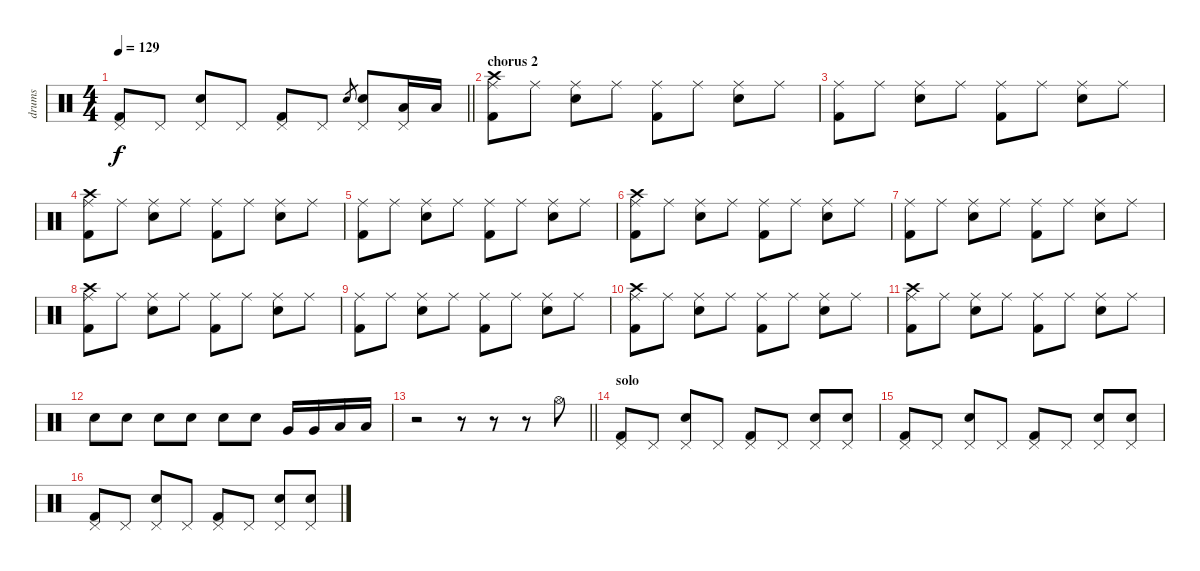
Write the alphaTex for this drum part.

\track ("drums" "drums") {instrument percussion}
\staff {score}
\articulation defaults
\ts (4 4)
\tempo 129
\clef neutral
\barLineRight lightlight
\ks c
("Kick (hit) 2" "Pedal Hi-Hat (hit)").8{dy f} "Pedal Hi-Hat (hit)".8 ("Electric Snare (hit)" "Pedal Hi-Hat (hit)").8 "Pedal Hi-Hat (hit)".8 ("Kick (hit) 2" "Pedal Hi-Hat (hit)").8 "Pedal Hi-Hat (hit)".8 "Electric Snare (hit)".8{gr} ("Electric Snare (hit)" "Pedal Hi-Hat (hit)").8 ("Low Tom (hit)" "Pedal Hi-Hat (hit)").16 "Low Tom (hit)".16 |
\section ("" "chorus 2")
("Kick (hit) 2" "Ride (middle)" "Crash high (hit)").8 "Ride (middle)".8 ("Electric Snare (hit)" "Ride (middle)").8 "Ride (middle)".8 ("Kick (hit) 2" "Ride (middle)").8 "Ride (middle)".8 ("Electric Snare (hit)" "Ride (middle)").8 "Ride (middle)".8 |
("Kick (hit) 2" "Ride (middle)").8 "Ride (middle)".8 ("Electric Snare (hit)" "Ride (middle)").8 "Ride (middle)".8 ("Kick (hit) 2" "Ride (middle)").8 "Ride (middle)".8 ("Electric Snare (hit)" "Ride (middle)").8 "Ride (middle)".8 |
("Kick (hit) 2" "Ride (middle)" "Crash high (hit)").8 "Ride (middle)".8 ("Electric Snare (hit)" "Ride (middle)").8 "Ride (middle)".8 ("Kick (hit) 2" "Ride (middle)").8 "Ride (middle)".8 ("Electric Snare (hit)" "Ride (middle)").8 "Ride (middle)".8 |
("Kick (hit) 2" "Ride (middle)").8 "Ride (middle)".8 ("Electric Snare (hit)" "Ride (middle)").8 "Ride (middle)".8 ("Kick (hit) 2" "Ride (middle)").8 "Ride (middle)".8 ("Electric Snare (hit)" "Ride (middle)").8 "Ride (middle)".8 |
("Kick (hit) 2" "Ride (middle)" "Crash high (hit)").8 "Ride (middle)".8 ("Electric Snare (hit)" "Ride (middle)").8 "Ride (middle)".8 ("Kick (hit) 2" "Ride (middle)").8 "Ride (middle)".8 ("Electric Snare (hit)" "Ride (middle)").8 "Ride (middle)".8 |
("Kick (hit) 2" "Ride (middle)").8 "Ride (middle)".8 ("Electric Snare (hit)" "Ride (middle)").8 "Ride (middle)".8 ("Kick (hit) 2" "Ride (middle)").8 "Ride (middle)".8 ("Electric Snare (hit)" "Ride (middle)").8 "Ride (middle)".8 |
("Kick (hit) 2" "Ride (middle)" "Crash high (hit)").8 "Ride (middle)".8 ("Electric Snare (hit)" "Ride (middle)").8 "Ride (middle)".8 ("Kick (hit) 2" "Ride (middle)").8 "Ride (middle)".8 ("Electric Snare (hit)" "Ride (middle)").8 "Ride (middle)".8 |
("Kick (hit) 2" "Ride (middle)").8 "Ride (middle)".8 ("Electric Snare (hit)" "Ride (middle)").8 "Ride (middle)".8 ("Kick (hit) 2" "Ride (middle)").8 "Ride (middle)".8 ("Electric Snare (hit)" "Ride (middle)").8 "Ride (middle)".8 |
("Kick (hit) 2" "Ride (middle)" "Crash high (hit)").8 "Ride (middle)".8 ("Electric Snare (hit)" "Ride (middle)").8 "Ride (middle)".8 ("Kick (hit) 2" "Ride (middle)").8 "Ride (middle)".8 ("Electric Snare (hit)" "Ride (middle)").8 "Ride (middle)".8 |
("Kick (hit) 2" "Ride (middle)" "Crash high (hit)").8 "Ride (middle)".8 ("Electric Snare (hit)" "Ride (middle)").8 "Ride (middle)".8 ("Kick (hit) 2" "Ride (middle)").8 "Ride (middle)".8 ("Electric Snare (hit)" "Ride (middle)").8 "Ride (middle)".8 |
"Electric Snare (hit)".8 "Electric Snare (hit)".8 "Electric Snare (hit)".8 "Electric Snare (hit)".8 "Electric Snare (hit)".8 "Electric Snare (hit)".8 "Very Low Tom (hit)".16 "Very Low Tom (hit)".16 "Low Tom (hit)".16 "Low Tom (hit)".16 |
\barLineRight lightlight
r.2 r.8 r.8 r.8 "Hi-Hat (open)".8 |
\section ("" "solo")
("Kick (hit) 2" "Pedal Hi-Hat (hit)").8 "Pedal Hi-Hat (hit)".8 ("Electric Snare (hit)" "Pedal Hi-Hat (hit)").8 "Pedal Hi-Hat (hit)".8 ("Kick (hit) 2" "Pedal Hi-Hat (hit)").8 "Pedal Hi-Hat (hit)".8 ("Electric Snare (hit)" "Pedal Hi-Hat (hit)").8 ("Electric Snare (hit)" "Pedal Hi-Hat (hit)").8 |
("Kick (hit) 2" "Pedal Hi-Hat (hit)").8 "Pedal Hi-Hat (hit)".8 ("Electric Snare (hit)" "Pedal Hi-Hat (hit)").8 "Pedal Hi-Hat (hit)".8 ("Kick (hit) 2" "Pedal Hi-Hat (hit)").8 "Pedal Hi-Hat (hit)".8 ("Electric Snare (hit)" "Pedal Hi-Hat (hit)").8 ("Electric Snare (hit)" "Pedal Hi-Hat (hit)").8 |
("Kick (hit) 2" "Pedal Hi-Hat (hit)").8 "Pedal Hi-Hat (hit)".8 ("Electric Snare (hit)" "Pedal Hi-Hat (hit)").8 "Pedal Hi-Hat (hit)".8 ("Kick (hit) 2" "Pedal Hi-Hat (hit)").8 "Pedal Hi-Hat (hit)".8 ("Electric Snare (hit)" "Pedal Hi-Hat (hit)").8 ("Electric Snare (hit)" "Pedal Hi-Hat (hit)").8
